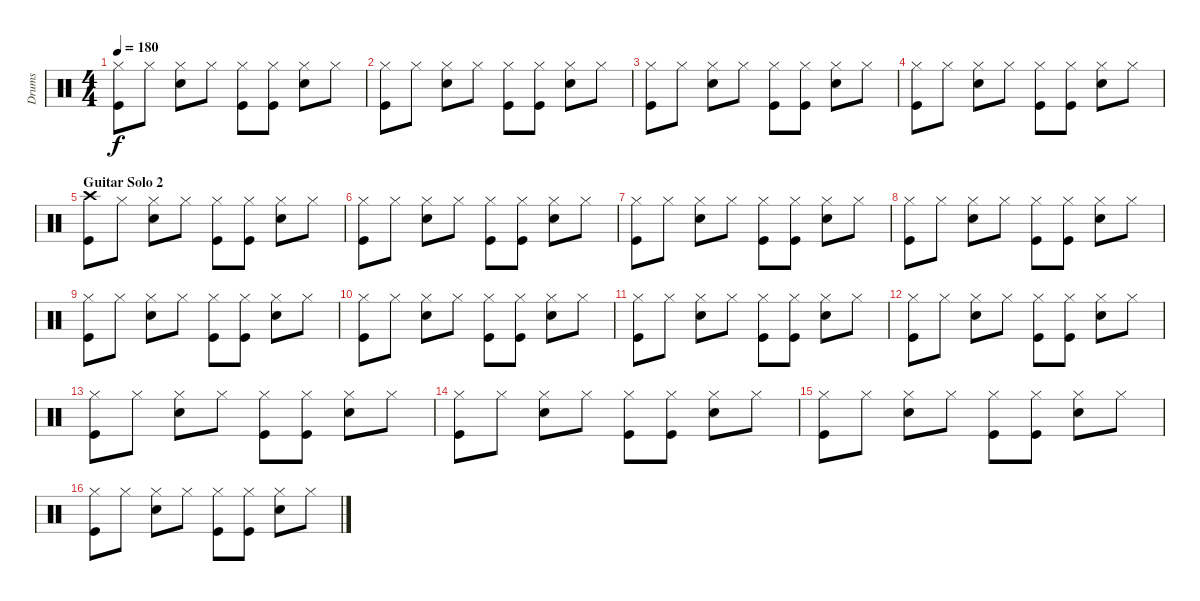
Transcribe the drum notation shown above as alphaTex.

\track ("Drums" "Drums") {instrument percussion}
\staff {score}
\articulation defaults
\ts (4 4)
\tempo 180
\clef neutral
\ks c
("Hi-Hat (closed)" "Kick (hit)").8{dy f} "Hi-Hat (closed)".8 ("Hi-Hat (closed)" "Electric Snare (hit)").8 "Hi-Hat (closed)".8 ("Kick (hit)" "Hi-Hat (closed)").8 ("Hi-Hat (closed)" "Kick (hit)").8 ("Hi-Hat (closed)" "Electric Snare (hit)").8 "Hi-Hat (closed)".8 |
("Hi-Hat (closed)" "Kick (hit)").8 "Hi-Hat (closed)".8 ("Hi-Hat (closed)" "Electric Snare (hit)").8 "Hi-Hat (closed)".8 ("Kick (hit)" "Hi-Hat (closed)").8 ("Hi-Hat (closed)" "Kick (hit)").8 ("Hi-Hat (closed)" "Electric Snare (hit)").8 "Hi-Hat (closed)".8 |
("Hi-Hat (closed)" "Kick (hit)").8 "Hi-Hat (closed)".8 ("Hi-Hat (closed)" "Electric Snare (hit)").8 "Hi-Hat (closed)".8 ("Kick (hit)" "Hi-Hat (closed)").8 ("Hi-Hat (closed)" "Kick (hit)").8 ("Hi-Hat (closed)" "Electric Snare (hit)").8 "Hi-Hat (closed)".8 |
("Hi-Hat (closed)" "Kick (hit)").8 "Hi-Hat (closed)".8 ("Hi-Hat (closed)" "Electric Snare (hit)").8 "Hi-Hat (closed)".8 ("Kick (hit)" "Hi-Hat (closed)").8 ("Hi-Hat (closed)" "Kick (hit)").8 ("Hi-Hat (closed)" "Electric Snare (hit)").8 "Hi-Hat (closed)".8 |
\section ("" "Guitar Solo 2")
("Kick (hit)" "Crash high (hit)").8 "Hi-Hat (closed)".8 ("Hi-Hat (closed)" "Electric Snare (hit)").8 "Hi-Hat (closed)".8 ("Kick (hit)" "Hi-Hat (closed)").8 ("Hi-Hat (closed)" "Kick (hit)").8 ("Hi-Hat (closed)" "Electric Snare (hit)").8 "Hi-Hat (closed)".8 |
("Hi-Hat (closed)" "Kick (hit)").8 "Hi-Hat (closed)".8 ("Hi-Hat (closed)" "Electric Snare (hit)").8 "Hi-Hat (closed)".8 ("Kick (hit)" "Hi-Hat (closed)").8 ("Hi-Hat (closed)" "Kick (hit)").8 ("Hi-Hat (closed)" "Electric Snare (hit)").8 "Hi-Hat (closed)".8 |
("Hi-Hat (closed)" "Kick (hit)").8 "Hi-Hat (closed)".8 ("Hi-Hat (closed)" "Electric Snare (hit)").8 "Hi-Hat (closed)".8 ("Kick (hit)" "Hi-Hat (closed)").8 ("Hi-Hat (closed)" "Kick (hit)").8 ("Hi-Hat (closed)" "Electric Snare (hit)").8 "Hi-Hat (closed)".8 |
("Hi-Hat (closed)" "Kick (hit)").8 "Hi-Hat (closed)".8 ("Hi-Hat (closed)" "Electric Snare (hit)").8 "Hi-Hat (closed)".8 ("Kick (hit)" "Hi-Hat (closed)").8 ("Hi-Hat (closed)" "Kick (hit)").8 ("Hi-Hat (closed)" "Electric Snare (hit)").8 "Hi-Hat (closed)".8 |
("Hi-Hat (closed)" "Kick (hit)").8 "Hi-Hat (closed)".8 ("Hi-Hat (closed)" "Electric Snare (hit)").8 "Hi-Hat (closed)".8 ("Kick (hit)" "Hi-Hat (closed)").8 ("Hi-Hat (closed)" "Kick (hit)").8 ("Hi-Hat (closed)" "Electric Snare (hit)").8 "Hi-Hat (closed)".8 |
("Hi-Hat (closed)" "Kick (hit)").8 "Hi-Hat (closed)".8 ("Hi-Hat (closed)" "Electric Snare (hit)").8 "Hi-Hat (closed)".8 ("Kick (hit)" "Hi-Hat (closed)").8 ("Hi-Hat (closed)" "Kick (hit)").8 ("Hi-Hat (closed)" "Electric Snare (hit)").8 "Hi-Hat (closed)".8 |
("Hi-Hat (closed)" "Kick (hit)").8 "Hi-Hat (closed)".8 ("Hi-Hat (closed)" "Electric Snare (hit)").8 "Hi-Hat (closed)".8 ("Kick (hit)" "Hi-Hat (closed)").8 ("Hi-Hat (closed)" "Kick (hit)").8 ("Hi-Hat (closed)" "Electric Snare (hit)").8 "Hi-Hat (closed)".8 |
("Hi-Hat (closed)" "Kick (hit)").8 "Hi-Hat (closed)".8 ("Hi-Hat (closed)" "Electric Snare (hit)").8 "Hi-Hat (closed)".8 ("Kick (hit)" "Hi-Hat (closed)").8 ("Hi-Hat (closed)" "Kick (hit)").8 ("Hi-Hat (closed)" "Electric Snare (hit)").8 "Hi-Hat (closed)".8 |
("Hi-Hat (closed)" "Kick (hit)").8 "Hi-Hat (closed)".8 ("Hi-Hat (closed)" "Electric Snare (hit)").8 "Hi-Hat (closed)".8 ("Kick (hit)" "Hi-Hat (closed)").8 ("Hi-Hat (closed)" "Kick (hit)").8 ("Hi-Hat (closed)" "Electric Snare (hit)").8 "Hi-Hat (closed)".8 |
("Hi-Hat (closed)" "Kick (hit)").8 "Hi-Hat (closed)".8 ("Hi-Hat (closed)" "Electric Snare (hit)").8 "Hi-Hat (closed)".8 ("Kick (hit)" "Hi-Hat (closed)").8 ("Hi-Hat (closed)" "Kick (hit)").8 ("Hi-Hat (closed)" "Electric Snare (hit)").8 "Hi-Hat (closed)".8 |
("Hi-Hat (closed)" "Kick (hit)").8 "Hi-Hat (closed)".8 ("Hi-Hat (closed)" "Electric Snare (hit)").8 "Hi-Hat (closed)".8 ("Kick (hit)" "Hi-Hat (closed)").8 ("Hi-Hat (closed)" "Kick (hit)").8 ("Hi-Hat (closed)" "Electric Snare (hit)").8 "Hi-Hat (closed)".8 |
("Hi-Hat (closed)" "Kick (hit)").8 "Hi-Hat (closed)".8 ("Hi-Hat (closed)" "Electric Snare (hit)").8 "Hi-Hat (closed)".8 ("Kick (hit)" "Hi-Hat (closed)").8 ("Hi-Hat (closed)" "Kick (hit)").8 ("Hi-Hat (closed)" "Electric Snare (hit)").8 "Hi-Hat (closed)".8
